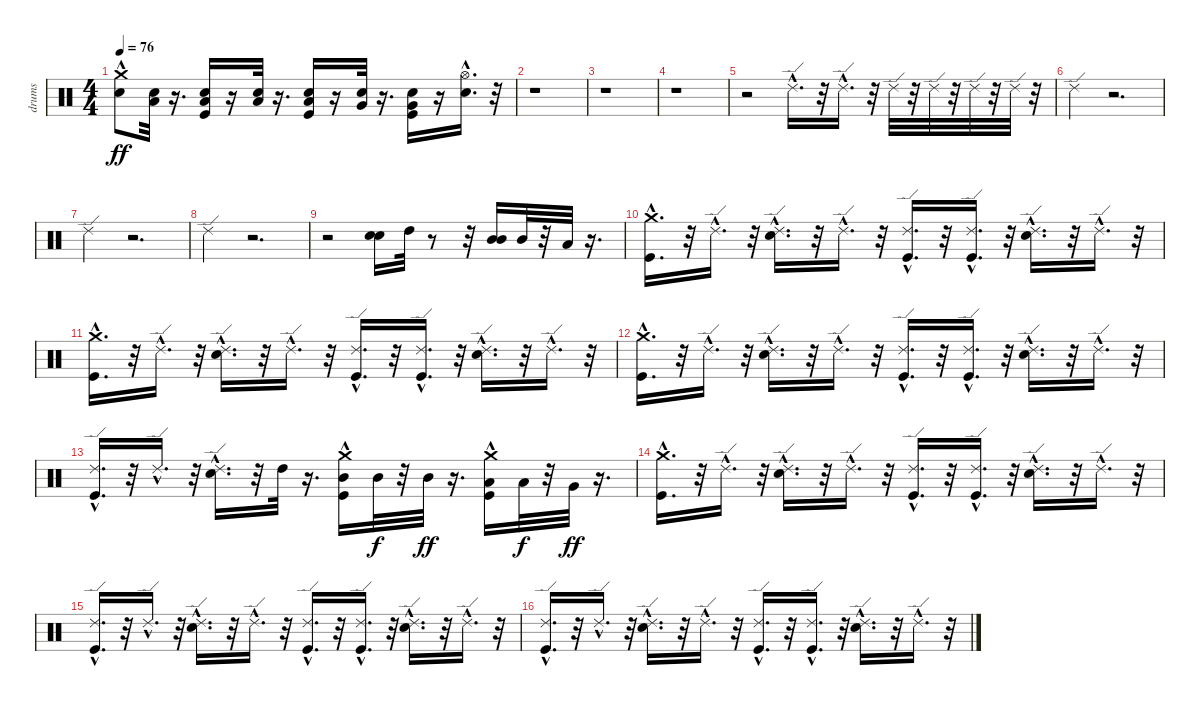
\track ("drums" "drums") {instrument percussion}
\staff {score}
\articulation defaults
\ts (4 4)
\tempo 76
\clef neutral
\ks c
("Crash medium (hit)"{hac} "Electric Snare (hit)").8{dy ff} ("Electric Snare (hit)" "Low Tom (hit)").32 r.16{d} ("Electric Snare (hit)" "Low Tom (hit)" "Kick (hit)").16 r.16 ("Electric Snare (hit)" "Low Tom (hit)").32 r.16{d} ("Electric Snare (hit)" "Low Tom (hit)" "Kick (hit)").16 r.16 ("Electric Snare (hit)" "Very Low Tom (hit)").32 r.16{d} ("Electric Snare (hit)" "Very Low Tom (hit)" "Kick (hit)").16 r.16 ("Electric Snare (hit)" "Hi-Hat (open)"{hac}).16{d} r.32 |
r.1 |
r.1 |
r.1 |
r.2 "Ride (edge) 2"{hac}.16{d} r.32 "Ride (edge) 2"{hac}.16{d} r.32 "Ride (edge) 2".32 r.32 "Ride (edge) 2".32 r.32 "Ride (edge) 2".32 r.32 "Ride (edge) 2".32 r.32 |
"Ride (edge) 2".4 r.2{d} |
"Ride (edge) 2".4 r.2{d} |
"Ride (edge) 2".4 r.2{d} |
r.2 ("Electric Snare (hit)" "Electric Snare (hit)").16 "High Tom (hit)".32 r.8 r.32 ("Mid Tom (hit)" "Mid Tom (hit)").16 "Mid Tom (hit)".32 r.32 "Low Tom (hit)".32 r.16{d} |
("Crash medium (hit)"{hac} "Kick (hit)").16{d} r.32 "Ride (edge) 2"{hac}.16{d} r.32 ("Ride (edge) 2"{hac} "Electric Snare (hit)").16{d} r.32 "Ride (edge) 2"{hac}.16{d} r.32 ("Ride (edge) 2"{hac} "Kick (hit)").16{d} r.32 ("Ride (edge) 2"{hac} "Kick (hit)").16{d} r.32 ("Ride (edge) 2"{hac} "Electric Snare (hit)").16{d} r.32 "Ride (edge) 2"{hac}.16{d} r.32 |
("Crash medium (hit)"{hac} "Kick (hit)").16{d} r.32 "Ride (edge) 2"{hac}.16{d} r.32 ("Ride (edge) 2"{hac} "Electric Snare (hit)").16{d} r.32 "Ride (edge) 2"{hac}.16{d} r.32 ("Ride (edge) 2"{hac} "Kick (hit)").16{d} r.32 ("Ride (edge) 2"{hac} "Kick (hit)").16{d} r.32 ("Ride (edge) 2"{hac} "Electric Snare (hit)").16{d} r.32 "Ride (edge) 2"{hac}.16{d} r.32 |
("Crash medium (hit)"{hac} "Kick (hit)").16{d} r.32 "Ride (edge) 2"{hac}.16{d} r.32 ("Ride (edge) 2"{hac} "Electric Snare (hit)").16{d} r.32 "Ride (edge) 2"{hac}.16{d} r.32 ("Ride (edge) 2"{hac} "Kick (hit)").16{d} r.32 ("Ride (edge) 2"{hac} "Kick (hit)").16{d} r.32 ("Ride (edge) 2"{hac} "Electric Snare (hit)").16{d} r.32 "Ride (edge) 2"{hac}.16{d} r.32 |
("Kick (hit)" "Ride (edge) 2"{hac}).16{d} r.32 "Ride (edge) 2"{hac}.16{d} r.32 ("Ride (edge) 2"{hac} "Electric Snare (hit)").16{d} r.32 "High Tom (hit)".32 r.16{d} ("Kick (hit)" "Crash medium (hit)"{hac} "Mid Tom (hit)").16 "Mid Tom (hit)".32{dy f} r.32 "Mid Tom (hit)".32{dy ff} r.16{d} ("Kick (hit)" "Low Tom (hit)" "Crash medium (hit)"{hac}).16 "Low Tom (hit)".32{dy f} r.32 "Very Low Tom (hit)".32{dy ff} r.16{d} |
("Crash medium (hit)"{hac} "Kick (hit)").16{d} r.32 "Ride (edge) 2"{hac}.16{d} r.32 ("Ride (edge) 2"{hac} "Electric Snare (hit)").16{d} r.32 "Ride (edge) 2"{hac}.16{d} r.32 ("Ride (edge) 2"{hac} "Kick (hit)").16{d} r.32 ("Ride (edge) 2"{hac} "Kick (hit)").16{d} r.32 ("Ride (edge) 2"{hac} "Electric Snare (hit)").16{d} r.32 "Ride (edge) 2"{hac}.16{d} r.32 |
("Kick (hit)" "Ride (edge) 2"{hac}).16{d} r.32 "Ride (edge) 2"{hac}.16{d} r.32 ("Ride (edge) 2"{hac} "Electric Snare (hit)").16{d} r.32 "Ride (edge) 2"{hac}.16{d} r.32 ("Ride (edge) 2"{hac} "Kick (hit)").16{d} r.32 ("Ride (edge) 2"{hac} "Kick (hit)").16{d} r.32 ("Ride (edge) 2"{hac} "Electric Snare (hit)").16{d} r.32 "Ride (edge) 2"{hac}.16{d} r.32 |
("Kick (hit)" "Ride (edge) 2"{hac}).16{d} r.32 "Ride (edge) 2"{hac}.16{d} r.32 ("Ride (edge) 2"{hac} "Electric Snare (hit)").16{d} r.32 "Ride (edge) 2"{hac}.16{d} r.32 ("Ride (edge) 2"{hac} "Kick (hit)").16{d} r.32 ("Ride (edge) 2"{hac} "Kick (hit)").16{d} r.32 ("Ride (edge) 2"{hac} "Electric Snare (hit)").16{d} r.32 "Ride (edge) 2"{hac}.16{d} r.32
